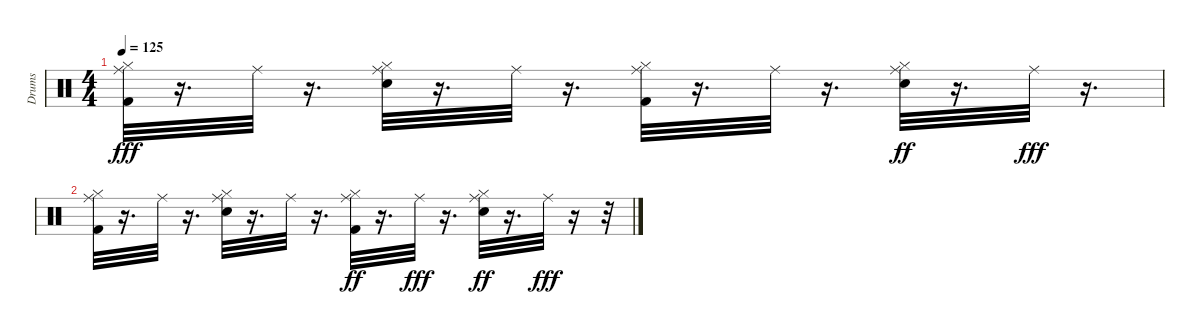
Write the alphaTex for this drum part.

\track ("Drums" "Drums") {instrument percussion}
\staff {score}
\articulation defaults
\ts (4 4)
\tempo 125
\clef neutral
\ks c
("Ride (middle)" "Kick (hit) 2" "Hi-Hat (closed)").32{dy fff volume 2} r.16{d} "Ride (middle)".32{volume 2} r.16{d} ("Hi-Hat (closed)" "Ride (middle)" "Snare (hit) 2").32{volume 2} r.16{d} "Ride (middle)".32 r.16{d} ("Kick (hit) 2" "Hi-Hat (closed)" "Ride (middle)").32{volume 1} r.16{d} "Ride (middle)".32{volume 1} r.16{d} ("Hi-Hat (closed)" "Ride (middle)" "Snare (hit) 2").32{dy ff volume 1} r.16{d} "Ride (middle)".32{dy fff volume 1} r.16{d} |
("Hi-Hat (closed)" "Ride (middle)" "Kick (hit) 2").32{volume 1} r.16{d} "Ride (middle)".32{volume 1} r.16{d} ("Hi-Hat (closed)" "Snare (hit) 2" "Ride (middle)").32 r.16{d} "Ride (middle)".32{volume 1} r.16{d} ("Ride (middle)" "Kick (hit) 2" "Hi-Hat (closed)").32{dy ff volume 0} r.16{d} "Ride (middle)".32{dy fff volume 0} r.16{d} ("Ride (middle)" "Hi-Hat (closed)" "Snare (hit) 2").32{dy ff volume 0} r.16{d} "Ride (middle)".32{dy fff volume 0} r.16 r.32
